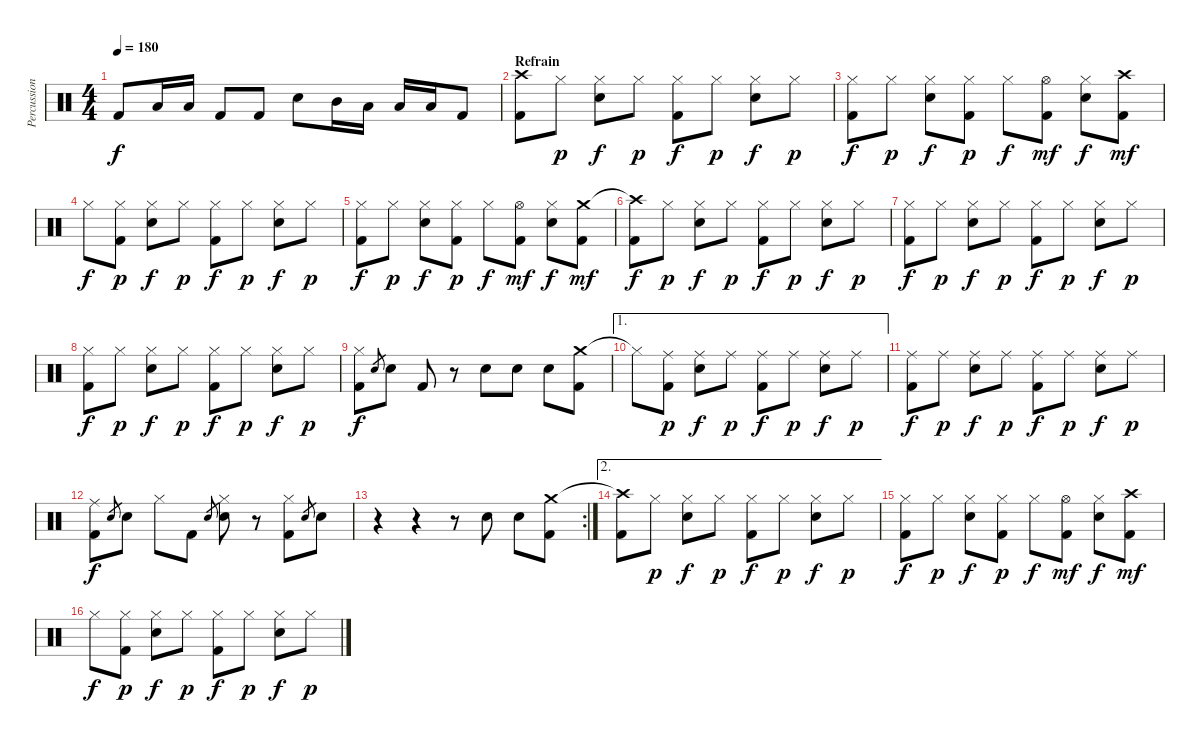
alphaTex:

\track ("Percussions" "Percussion") {instrument percussion}
\staff {score}
\articulation defaults
\ts (4 4)
\tempo 180
\clef neutral
\ks c "Kick (hit) 2".8{dy f} "Low Tom (hit)".16 "Low Tom (hit)".16 "Kick (hit) 2".8 "Kick (hit) 2".8 "Electric Snare (hit)".8 "Mid Tom (hit)".16 "Low Tom (hit)".16 "Low Tom (hit)".16 "Low Tom (hit)".16 "Kick (hit) 2".8
|
\section ("" "Refrain")
("Crash high (hit)" "Kick (hit) 2").8 "Hi-Hat (closed)".8{dy p} ("Hi-Hat (closed)" "Electric Snare (hit)").8{dy f} "Hi-Hat (closed)".8{dy p} ("Hi-Hat (closed)" "Kick (hit) 2").8{dy f} "Hi-Hat (closed)".8{dy p} ("Hi-Hat (closed)" "Electric Snare (hit)").8{dy f} "Hi-Hat (closed)".8{dy p} |
("Hi-Hat (closed)" "Kick (hit) 2").8{dy f} "Hi-Hat (closed)".8{dy p} ("Hi-Hat (closed)" "Electric Snare (hit)").8{dy f} ("Hi-Hat (closed)" "Kick (hit) 2").8{dy p} "Hi-Hat (closed)".8{dy f} ("Hi-Hat (open)" "Kick (hit) 2").8{dy mf} ("Hi-Hat (closed)" "Electric Snare (hit)").8{dy f} ("Crash high (hit)" "Kick (hit) 2").8{dy mf} |
"Hi-Hat (closed)".8{dy f} ("Hi-Hat (closed)" "Kick (hit) 2").8{dy p} ("Hi-Hat (closed)" "Electric Snare (hit)").8{dy f} "Hi-Hat (closed)".8{dy p} ("Hi-Hat (closed)" "Kick (hit) 2").8{dy f} "Hi-Hat (closed)".8{dy p} ("Hi-Hat (closed)" "Electric Snare (hit)").8{dy f} "Hi-Hat (closed)".8{dy p} |
("Hi-Hat (closed)" "Kick (hit) 2").8{dy f} "Hi-Hat (closed)".8{dy p} ("Hi-Hat (closed)" "Electric Snare (hit)").8{dy f} ("Hi-Hat (closed)" "Kick (hit) 2").8{dy p} "Hi-Hat (closed)".8{dy f} ("Hi-Hat (open)" "Kick (hit) 2").8{dy mf} ("Hi-Hat (closed)" "Electric Snare (hit)").8{dy f} ("Crash medium (hit)" "Kick (hit) 2").8{dy mf} |
("Crash high (hit)"{t} "Kick (hit) 2").8{dy f} "Hi-Hat (closed)".8{dy p} ("Hi-Hat (closed)" "Electric Snare (hit)").8{dy f} "Hi-Hat (closed)".8{dy p} ("Hi-Hat (closed)" "Kick (hit) 2").8{dy f} "Hi-Hat (closed)".8{dy p} ("Hi-Hat (closed)" "Electric Snare (hit)").8{dy f} "Hi-Hat (closed)".8{dy p} |
("Hi-Hat (closed)" "Kick (hit) 2").8{dy f} "Hi-Hat (closed)".8{dy p} ("Hi-Hat (closed)" "Electric Snare (hit)").8{dy f} "Hi-Hat (closed)".8{dy p} ("Hi-Hat (closed)" "Kick (hit) 2").8{dy f} "Hi-Hat (closed)".8{dy p} ("Hi-Hat (closed)" "Electric Snare (hit)").8{dy f} "Hi-Hat (closed)".8{dy p} |
("Hi-Hat (closed)" "Kick (hit) 2").8{dy f} "Hi-Hat (closed)".8{dy p} ("Hi-Hat (closed)" "Electric Snare (hit)").8{dy f} "Hi-Hat (closed)".8{dy p} ("Hi-Hat (closed)" "Kick (hit) 2").8{dy f} "Hi-Hat (closed)".8{dy p} ("Hi-Hat (closed)" "Electric Snare (hit)").8{dy f} "Hi-Hat (closed)".8{dy p} |
("Hi-Hat (closed)" "Kick (hit) 2").8{dy f} "Electric Snare (hit)".8{gr} "Electric Snare (hit)".8 "Kick (hit) 2".8 r.8 "Electric Snare (hit)".8 "Electric Snare (hit)".8 "Electric Snare (hit)".8 ("Crash medium (hit)" "Kick (hit) 2").8 |
\ae 1 "Hi-Hat (closed)"{t}.8
("Ride (middle)" "Kick (hit) 2").8{dy p} ("Ride (middle)" "Electric Snare (hit)").8{dy f} "Ride (middle)".8{dy p} ("Ride (middle)" "Kick (hit) 2").8{dy f} "Ride (middle)".8{dy p} ("Ride (middle)" "Electric Snare (hit)").8{dy f} "Ride (middle)".8{dy p} |
("Ride (middle)" "Kick (hit) 2").8{dy f} "Ride (middle)".8{dy p} ("Ride (middle)" "Electric Snare (hit)").8{dy f} "Ride (middle)".8{dy p} ("Ride (middle)" "Kick (hit) 2").8{dy f} "Ride (middle)".8{dy p} ("Ride (middle)" "Electric Snare (hit)").8{dy f} "Ride (middle)".8{dy p} |
("Ride (middle)" "Kick (hit) 2").8{dy f} "Electric Snare (hit)".8{gr} "Electric Snare (hit)".8 "Hi-Hat (closed)".8 "Kick (hit) 2".8 "Electric Snare (hit)".8{gr} ("Hi-Hat (closed)" "Electric Snare (hit)").8 r.8 ("Hi-Hat (closed)" "Kick (hit) 2").8 "Electric Snare (hit)".8{gr} "Electric Snare (hit)".8 |
\rc 2
r.4 r.4 r.8 "Electric Snare (hit)".8 "Electric Snare (hit)".8 ("Crash medium (hit)" "Kick (hit) 2").8 |
\ae 2
("Crash high (hit)"{t} "Kick (hit) 2").8 "Hi-Hat (closed)".8{dy p} ("Hi-Hat (closed)" "Electric Snare (hit)").8{dy f} "Hi-Hat (closed)".8{dy p} ("Hi-Hat (closed)" "Kick (hit) 2").8{dy f} "Hi-Hat (closed)".8{dy p} ("Hi-Hat (closed)" "Electric Snare (hit)").8{dy f} "Hi-Hat (closed)".8{dy p} |
("Hi-Hat (closed)" "Kick (hit) 2").8{dy f} "Hi-Hat (closed)".8{dy p} ("Hi-Hat (closed)" "Electric Snare (hit)").8{dy f} ("Hi-Hat (closed)" "Kick (hit) 2").8{dy p} "Hi-Hat (closed)".8{dy f} ("Hi-Hat (open)" "Kick (hit) 2").8{dy mf} ("Hi-Hat (closed)" "Electric Snare (hit)").8{dy f} ("Crash high (hit)" "Kick (hit) 2").8{dy mf} |
"Hi-Hat (closed)".8{dy f} ("Hi-Hat (closed)" "Kick (hit) 2").8{dy p} ("Hi-Hat (closed)" "Electric Snare (hit)").8{dy f} "Hi-Hat (closed)".8{dy p} ("Hi-Hat (closed)" "Kick (hit) 2").8{dy f} "Hi-Hat (closed)".8{dy p} ("Hi-Hat (closed)" "Electric Snare (hit)").8{dy f} "Hi-Hat (closed)".8{dy p}
